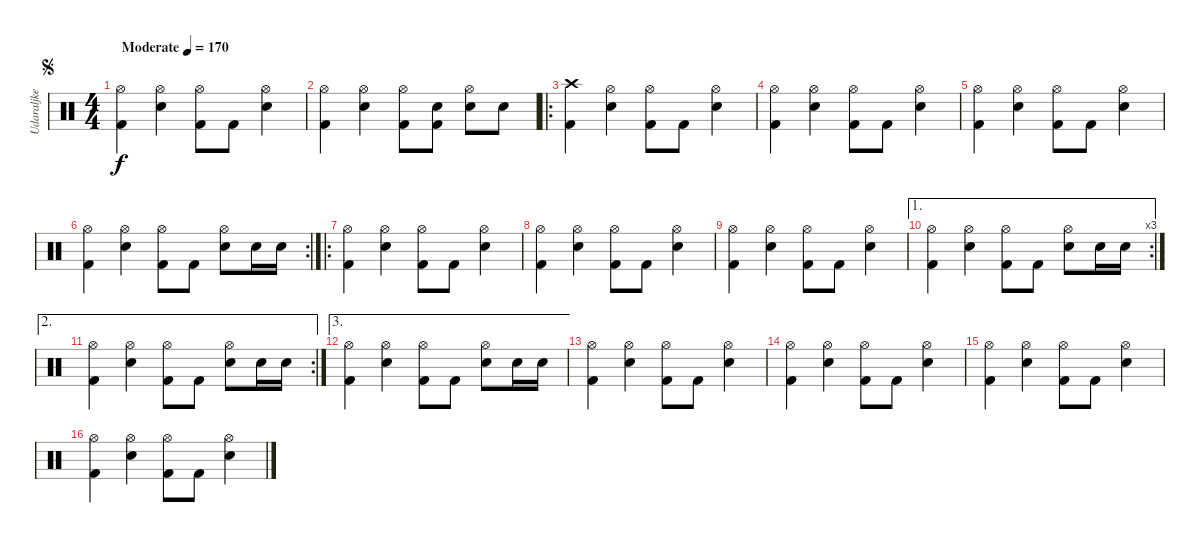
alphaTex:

\track ("Udaraljke" "Udaraljke") {instrument percussion}
\staff {score}
\articulation defaults
\ts (4 4)
\jump segno
\tempo (170 "Moderate")
\clef neutral
\ks c
("Hi-Hat (open)" "Kick (hit) 2").4{dy f} ("Hi-Hat (open)" "Snare (hit) 2").4 ("Hi-Hat (open)" "Kick (hit) 2").8 "Kick (hit) 2".8 ("Hi-Hat (open)" "Snare (hit) 2").4 |
("Hi-Hat (open)" "Kick (hit) 2").4 ("Hi-Hat (open)" "Snare (hit) 2").4 ("Hi-Hat (open)" "Kick (hit) 2").8 ("Snare (hit) 2" "Kick (hit) 2").8 ("Hi-Hat (open)" "Snare (hit) 2").8 "Snare (hit) 2".8 |
\ro
("Crash high (hit)" "Kick (hit) 2").4 ("Hi-Hat (open)" "Snare (hit) 2").4 ("Hi-Hat (open)" "Kick (hit) 2").8 "Kick (hit) 2".8 ("Hi-Hat (open)" "Snare (hit) 2").4 |
("Hi-Hat (open)" "Kick (hit) 2").4 ("Hi-Hat (open)" "Snare (hit) 2").4 ("Hi-Hat (open)" "Kick (hit) 2").8 "Kick (hit) 2".8 ("Hi-Hat (open)" "Snare (hit) 2").4 |
("Hi-Hat (open)" "Kick (hit) 2").4 ("Hi-Hat (open)" "Snare (hit) 2").4 ("Hi-Hat (open)" "Kick (hit) 2").8 "Kick (hit) 2".8 ("Hi-Hat (open)" "Snare (hit) 2").4 |
\rc 2
("Hi-Hat (open)" "Kick (hit) 2").4 ("Hi-Hat (open)" "Snare (hit) 2").4 ("Hi-Hat (open)" "Kick (hit) 2").8 "Kick (hit) 2".8 ("Hi-Hat (open)" "Snare (hit) 2").8 "Snare (hit) 2".16 "Snare (hit) 2".16 |
\ro
("Hi-Hat (open)" "Kick (hit) 2").4 ("Hi-Hat (open)" "Snare (hit) 2").4 ("Hi-Hat (open)" "Kick (hit) 2").8 "Kick (hit) 2".8 ("Hi-Hat (open)" "Snare (hit) 2").4 |
("Hi-Hat (open)" "Kick (hit) 2").4 ("Hi-Hat (open)" "Snare (hit) 2").4 ("Hi-Hat (open)" "Kick (hit) 2").8 "Kick (hit) 2".8 ("Hi-Hat (open)" "Snare (hit) 2").4 |
("Hi-Hat (open)" "Kick (hit) 2").4 ("Hi-Hat (open)" "Snare (hit) 2").4 ("Hi-Hat (open)" "Kick (hit) 2").8 "Kick (hit) 2".8 ("Hi-Hat (open)" "Snare (hit) 2").4 |
\ae 1
\rc 3
("Hi-Hat (open)" "Kick (hit) 2").4 ("Hi-Hat (open)" "Snare (hit) 2").4 ("Hi-Hat (open)" "Kick (hit) 2").8 "Kick (hit) 2".8 ("Hi-Hat (open)" "Snare (hit) 2").8 "Snare (hit) 2".16 "Snare (hit) 2".16 |
\ae 2
\rc 2
("Hi-Hat (open)" "Kick (hit) 2").4 ("Hi-Hat (open)" "Snare (hit) 2").4 ("Hi-Hat (open)" "Kick (hit) 2").8 "Kick (hit) 2".8 ("Hi-Hat (open)" "Snare (hit) 2").8 "Snare (hit) 2".16 "Snare (hit) 2".16 |
\ae 3
("Hi-Hat (open)" "Kick (hit) 2").4 ("Hi-Hat (open)" "Snare (hit) 2").4 ("Hi-Hat (open)" "Kick (hit) 2").8 "Kick (hit) 2".8 ("Hi-Hat (open)" "Snare (hit) 2").8 "Snare (hit) 2".16 "Snare (hit) 2".16 |
("Hi-Hat (open)" "Kick (hit) 2").4 ("Hi-Hat (open)" "Snare (hit) 2").4 ("Hi-Hat (open)" "Kick (hit) 2").8 "Kick (hit) 2".8 ("Hi-Hat (open)" "Snare (hit) 2").4 |
("Hi-Hat (open)" "Kick (hit) 2").4 ("Hi-Hat (open)" "Snare (hit) 2").4 ("Hi-Hat (open)" "Kick (hit) 2").8 "Kick (hit) 2".8 ("Hi-Hat (open)" "Snare (hit) 2").4 |
("Hi-Hat (open)" "Kick (hit) 2").4 ("Hi-Hat (open)" "Snare (hit) 2").4 ("Hi-Hat (open)" "Kick (hit) 2").8 "Kick (hit) 2".8 ("Hi-Hat (open)" "Snare (hit) 2").4 |
("Hi-Hat (open)" "Kick (hit) 2").4 ("Hi-Hat (open)" "Snare (hit) 2").4 ("Hi-Hat (open)" "Kick (hit) 2").8 "Kick (hit) 2".8 ("Hi-Hat (open)" "Snare (hit) 2").4
